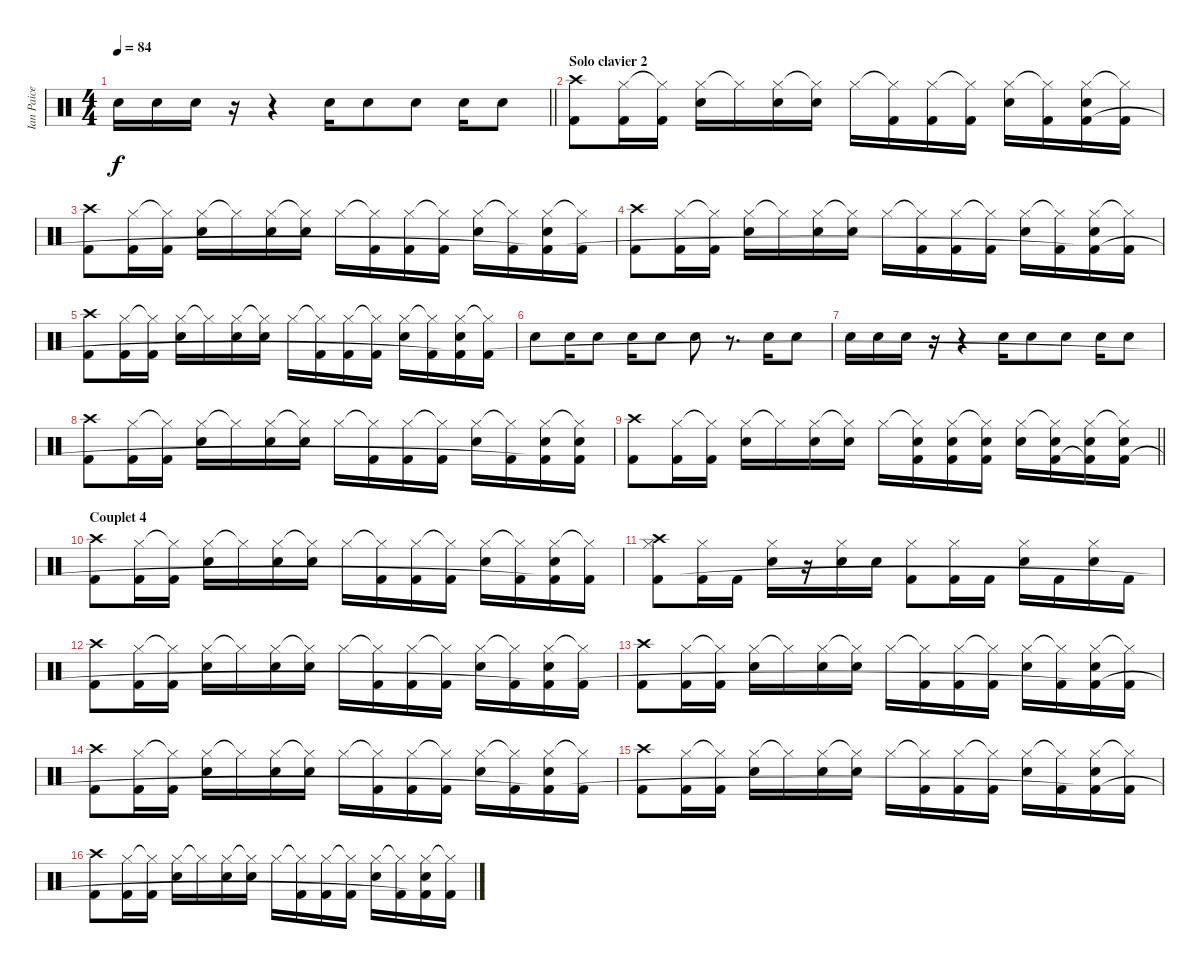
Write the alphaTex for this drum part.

\track ("Ian Paice" "Ian Paice") {instrument percussion}
\staff {score}
\articulation defaults
\ts (4 4)
\tempo 84
\clef neutral
\barLineRight lightlight
\ks c "Snare (hit) 2".16{dy f} "Snare (hit) 2".16 "Snare (hit) 2".16
r.16 r.4 "Snare (hit) 2".16 "Snare (hit) 2".8 "Snare (hit) 2".8 "Snare (hit) 2".16 "Snare (hit) 2".8 |
\section ("" "Solo clavier 2")
("Crash high (hit)" "Kick (hit) 2").8 ("Hi-Hat (closed)" "Kick (hit) 2").16 ("Hi-Hat (closed)"{t} "Kick (hit) 2").16 ("Hi-Hat (closed)" "Snare (hit) 2").16 "Hi-Hat (closed)"{t}.16 ("Hi-Hat (closed)" "Snare (hit) 2").16 ("Hi-Hat (closed)"{t} "Snare (hit) 2").16 "Hi-Hat (closed)".16 ("Hi-Hat (closed)"{t} "Kick (hit) 2").16 ("Hi-Hat (closed)" "Kick (hit) 2").16 ("Hi-Hat (closed)"{t} "Kick (hit) 2").16 ("Hi-Hat (closed)" "Snare (hit) 2").16 ("Hi-Hat (closed)"{t} "Kick (hit) 2").16 ("Hi-Hat (closed)" "Snare (hit) 2" "Kick (hit) 2"{t}).16 ("Hi-Hat (closed)"{t} "Kick (hit) 2").16 |
("Crash high (hit)" "Kick (hit) 2").8 ("Hi-Hat (closed)" "Kick (hit) 2").16 ("Hi-Hat (closed)"{t} "Kick (hit) 2").16 ("Hi-Hat (closed)" "Snare (hit) 2").16 "Hi-Hat (closed)"{t}.16 ("Hi-Hat (closed)" "Snare (hit) 2").16 ("Hi-Hat (closed)"{t} "Snare (hit) 2").16 "Hi-Hat (closed)".16 ("Hi-Hat (closed)"{t} "Kick (hit) 2").16 ("Hi-Hat (closed)" "Kick (hit) 2").16 ("Hi-Hat (closed)"{t} "Kick (hit) 2").16 ("Hi-Hat (closed)" "Snare (hit) 2").16 ("Hi-Hat (closed)"{t} "Kick (hit) 2").16 ("Hi-Hat (closed)" "Snare (hit) 2" "Kick (hit) 2"{t}).16 ("Hi-Hat (closed)"{t} "Kick (hit) 2").16 |
("Crash high (hit)" "Kick (hit) 2").8 ("Hi-Hat (closed)" "Kick (hit) 2").16 ("Hi-Hat (closed)"{t} "Kick (hit) 2").16 ("Hi-Hat (closed)" "Snare (hit) 2").16 "Hi-Hat (closed)"{t}.16 ("Hi-Hat (closed)" "Snare (hit) 2").16 ("Hi-Hat (closed)"{t} "Snare (hit) 2").16 "Hi-Hat (closed)".16 ("Hi-Hat (closed)"{t} "Kick (hit) 2").16 ("Hi-Hat (closed)" "Kick (hit) 2").16 ("Hi-Hat (closed)"{t} "Kick (hit) 2").16 ("Hi-Hat (closed)" "Snare (hit) 2").16 ("Hi-Hat (closed)"{t} "Kick (hit) 2").16 ("Hi-Hat (closed)" "Snare (hit) 2" "Kick (hit) 2"{t}).16 ("Hi-Hat (closed)"{t} "Kick (hit) 2").16 |
("Crash high (hit)" "Kick (hit) 2").8 ("Hi-Hat (closed)" "Kick (hit) 2").16 ("Hi-Hat (closed)"{t} "Kick (hit) 2").16 ("Hi-Hat (closed)" "Snare (hit) 2").16 "Hi-Hat (closed)"{t}.16 ("Hi-Hat (closed)" "Snare (hit) 2").16 ("Hi-Hat (closed)"{t} "Snare (hit) 2").16 "Hi-Hat (closed)".16 ("Hi-Hat (closed)"{t} "Kick (hit) 2").16 ("Hi-Hat (closed)" "Kick (hit) 2").16 ("Hi-Hat (closed)"{t} "Kick (hit) 2").16 ("Hi-Hat (closed)" "Snare (hit) 2").16 ("Hi-Hat (closed)"{t} "Kick (hit) 2").16 ("Hi-Hat (closed)" "Snare (hit) 2" "Kick (hit) 2"{t}).16 ("Hi-Hat (closed)"{t} "Kick (hit) 2").16 |
"Snare (hit) 2".8 "Snare (hit) 2".16 "Snare (hit) 2".8 "Snare (hit) 2".16 "Snare (hit) 2".8 "Snare (hit) 2".8 r.8{d} "Snare (hit) 2".16 "Snare (hit) 2".8 |
"Snare (hit) 2".16 "Snare (hit) 2".16 "Snare (hit) 2".16 r.16 r.4 "Snare (hit) 2".16 "Snare (hit) 2".8 "Snare (hit) 2".8 "Snare (hit) 2".16 "Snare (hit) 2".8 |
("Crash high (hit)" "Kick (hit) 2").8 ("Hi-Hat (closed)" "Kick (hit) 2").16 ("Hi-Hat (closed)"{t} "Kick (hit) 2").16 ("Hi-Hat (closed)" "Snare (hit) 2").16 "Hi-Hat (closed)"{t}.16 ("Hi-Hat (closed)" "Snare (hit) 2").16 ("Hi-Hat (closed)"{t} "Snare (hit) 2").16 "Hi-Hat (closed)".16 ("Hi-Hat (closed)"{t} "Kick (hit) 2").16 ("Hi-Hat (closed)" "Kick (hit) 2").16 ("Hi-Hat (closed)"{t} "Kick (hit) 2").16 ("Hi-Hat (closed)" "Snare (hit) 2").16 ("Hi-Hat (closed)"{t} "Kick (hit) 2").16 ("Hi-Hat (closed)" "Snare (hit) 2" "Kick (hit) 2"{t}).16 ("Hi-Hat (closed)"{t} "Snare (hit) 2" "Kick (hit) 2").16 |
\barLineRight lightlight
("Crash high (hit)" "Kick (hit) 2").8 ("Hi-Hat (closed)" "Kick (hit) 2").16 ("Hi-Hat (closed)"{t} "Kick (hit) 2").16 ("Hi-Hat (closed)" "Snare (hit) 2").16 "Hi-Hat (closed)"{t}.16 ("Hi-Hat (closed)" "Snare (hit) 2").16 ("Hi-Hat (closed)"{t} "Snare (hit) 2").16 "Hi-Hat (closed)".16 ("Hi-Hat (closed)"{t} "Snare (hit) 2" "Kick (hit) 2").16 ("Hi-Hat (closed)" "Snare (hit) 2" "Kick (hit) 2").16 ("Hi-Hat (closed)"{t} "Snare (hit) 2" "Kick (hit) 2").16 ("Hi-Hat (closed)" "Snare (hit) 2").16 ("Hi-Hat (closed)"{t} "Snare (hit) 2" "Kick (hit) 2").16 ("Hi-Hat (closed)" "Snare (hit) 2" "Kick (hit) 2"{t}).16 ("Hi-Hat (closed)"{t} "Snare (hit) 2" "Kick (hit) 2").16 |
\section ("" "Couplet 4 ")
("Crash high (hit)" "Kick (hit) 2").8 ("Hi-Hat (closed)" "Kick (hit) 2").16 ("Hi-Hat (closed)"{t} "Kick (hit) 2").16 ("Hi-Hat (closed)" "Snare (hit) 2").16 "Hi-Hat (closed)"{t}.16 ("Hi-Hat (closed)" "Snare (hit) 2").16 ("Hi-Hat (closed)"{t} "Snare (hit) 2").16 "Hi-Hat (closed)".16 ("Hi-Hat (closed)"{t} "Kick (hit) 2").16 ("Hi-Hat (closed)" "Kick (hit) 2").16 ("Hi-Hat (closed)"{t} "Kick (hit) 2").16 ("Hi-Hat (closed)" "Snare (hit) 2").16 ("Hi-Hat (closed)"{t} "Kick (hit) 2").16 ("Hi-Hat (closed)" "Snare (hit) 2" "Kick (hit) 2"{t}).16 ("Hi-Hat (closed)"{t} "Kick (hit) 2").16 |
("Hi-Hat (closed)" "Crash high (hit)" "Kick (hit) 2").8 ("Hi-Hat (closed)" "Kick (hit) 2").16 "Kick (hit) 2".16 ("Hi-Hat (closed)" "Snare (hit) 2").16 r.16 ("Hi-Hat (closed)" "Snare (hit) 2").16 "Snare (hit) 2".16 ("Hi-Hat (closed)" "Kick (hit) 2").8 ("Hi-Hat (closed)" "Kick (hit) 2").16 "Kick (hit) 2".16 ("Hi-Hat (closed)" "Snare (hit) 2").16 "Kick (hit) 2".16 ("Hi-Hat (closed)" "Snare (hit) 2").16 "Kick (hit) 2".16 |
("Crash high (hit)" "Kick (hit) 2").8 ("Hi-Hat (closed)" "Kick (hit) 2").16 ("Hi-Hat (closed)"{t} "Kick (hit) 2").16 ("Hi-Hat (closed)" "Snare (hit) 2").16 "Hi-Hat (closed)"{t}.16 ("Hi-Hat (closed)" "Snare (hit) 2").16 ("Hi-Hat (closed)"{t} "Snare (hit) 2").16 "Hi-Hat (closed)".16 ("Hi-Hat (closed)"{t} "Kick (hit) 2").16 ("Hi-Hat (closed)" "Kick (hit) 2").16 ("Hi-Hat (closed)"{t} "Kick (hit) 2").16 ("Hi-Hat (closed)" "Snare (hit) 2").16 ("Hi-Hat (closed)"{t} "Kick (hit) 2").16 ("Hi-Hat (closed)" "Snare (hit) 2" "Kick (hit) 2"{t}).16 ("Hi-Hat (closed)"{t} "Kick (hit) 2").16 |
("Crash high (hit)" "Kick (hit) 2").8 ("Hi-Hat (closed)" "Kick (hit) 2").16 ("Hi-Hat (closed)"{t} "Kick (hit) 2").16 ("Hi-Hat (closed)" "Snare (hit) 2").16 "Hi-Hat (closed)"{t}.16 ("Hi-Hat (closed)" "Snare (hit) 2").16 ("Hi-Hat (closed)"{t} "Snare (hit) 2").16 "Hi-Hat (closed)".16 ("Hi-Hat (closed)"{t} "Kick (hit) 2").16 ("Hi-Hat (closed)" "Kick (hit) 2").16 ("Hi-Hat (closed)"{t} "Kick (hit) 2").16 ("Hi-Hat (closed)" "Snare (hit) 2").16 ("Hi-Hat (closed)"{t} "Kick (hit) 2").16 ("Hi-Hat (closed)" "Snare (hit) 2" "Kick (hit) 2"{t}).16 ("Hi-Hat (closed)"{t} "Kick (hit) 2").16 |
("Crash high (hit)" "Kick (hit) 2").8 ("Hi-Hat (closed)" "Kick (hit) 2").16 ("Hi-Hat (closed)"{t} "Kick (hit) 2").16 ("Hi-Hat (closed)" "Snare (hit) 2").16 "Hi-Hat (closed)"{t}.16 ("Hi-Hat (closed)" "Snare (hit) 2").16 ("Hi-Hat (closed)"{t} "Snare (hit) 2").16 "Hi-Hat (closed)".16 ("Hi-Hat (closed)"{t} "Kick (hit) 2").16 ("Hi-Hat (closed)" "Kick (hit) 2").16 ("Hi-Hat (closed)"{t} "Kick (hit) 2").16 ("Hi-Hat (closed)" "Snare (hit) 2").16 ("Hi-Hat (closed)"{t} "Kick (hit) 2").16 ("Hi-Hat (closed)" "Snare (hit) 2" "Kick (hit) 2"{t}).16 ("Hi-Hat (closed)"{t} "Kick (hit) 2").16 |
("Crash high (hit)" "Kick (hit) 2").8 ("Hi-Hat (closed)" "Kick (hit) 2").16 ("Hi-Hat (closed)"{t} "Kick (hit) 2").16 ("Hi-Hat (closed)" "Snare (hit) 2").16 "Hi-Hat (closed)"{t}.16 ("Hi-Hat (closed)" "Snare (hit) 2").16 ("Hi-Hat (closed)"{t} "Snare (hit) 2").16 "Hi-Hat (closed)".16 ("Hi-Hat (closed)"{t} "Kick (hit) 2").16 ("Hi-Hat (closed)" "Kick (hit) 2").16 ("Hi-Hat (closed)"{t} "Kick (hit) 2").16 ("Hi-Hat (closed)" "Snare (hit) 2").16 ("Hi-Hat (closed)"{t} "Kick (hit) 2").16 ("Hi-Hat (closed)" "Snare (hit) 2" "Kick (hit) 2"{t}).16 ("Hi-Hat (closed)"{t} "Kick (hit) 2").16 |
("Crash high (hit)" "Kick (hit) 2").8 ("Hi-Hat (closed)" "Kick (hit) 2").16 ("Hi-Hat (closed)"{t} "Kick (hit) 2").16 ("Hi-Hat (closed)" "Snare (hit) 2").16 "Hi-Hat (closed)"{t}.16 ("Hi-Hat (closed)" "Snare (hit) 2").16 ("Hi-Hat (closed)"{t} "Snare (hit) 2").16 "Hi-Hat (closed)".16 ("Hi-Hat (closed)"{t} "Kick (hit) 2").16 ("Hi-Hat (closed)" "Kick (hit) 2").16 ("Hi-Hat (closed)"{t} "Kick (hit) 2").16 ("Hi-Hat (closed)" "Snare (hit) 2").16 ("Hi-Hat (closed)"{t} "Kick (hit) 2").16 ("Hi-Hat (closed)" "Snare (hit) 2" "Kick (hit) 2"{t}).16 ("Hi-Hat (closed)"{t} "Kick (hit) 2").16
